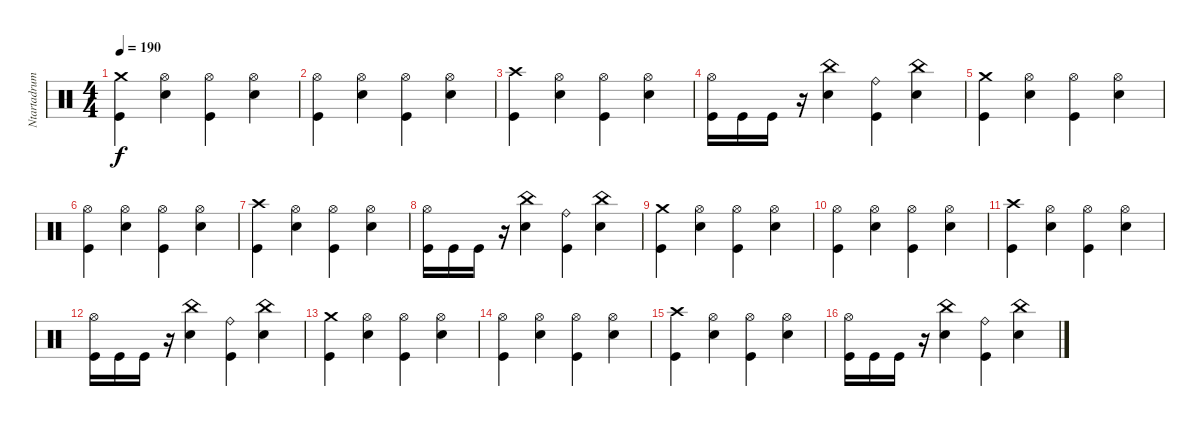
\track ("Ntartadrum" "Ntartadrum") {instrument percussion}
\staff {score}
\articulation defaults
\ts (4 4)
\tempo 190
\clef neutral
\ks c
("Kick (hit)" "Crash medium (hit)").4{dy f} ("Electric Snare (hit)" "Hi-Hat (open)").4 ("Kick (hit)" "Hi-Hat (open)").4 ("Electric Snare (hit)" "Hi-Hat (open)").4 |
("Kick (hit)" "Hi-Hat (open)").4 ("Electric Snare (hit)" "Hi-Hat (open)").4 ("Kick (hit)" "Hi-Hat (open)").4 ("Electric Snare (hit)" "Hi-Hat (open)").4 |
("Kick (hit)" "Crash high (hit)").4 ("Electric Snare (hit)" "Hi-Hat (open)").4 ("Kick (hit)" "Hi-Hat (open)").4 ("Electric Snare (hit)" "Hi-Hat (open)").4 |
("Kick (hit)" "Hi-Hat (open)").16 "Kick (hit)".16 "Kick (hit)".16 r.16 ("Electric Snare (hit)" "China (hit)").4 ("Kick (hit)" "Ride (bell)").4 ("Electric Snare (hit)" "China (hit)").4 |
("Kick (hit)" "Crash medium (hit)").4 ("Electric Snare (hit)" "Hi-Hat (open)").4 ("Kick (hit)" "Hi-Hat (open)").4 ("Electric Snare (hit)" "Hi-Hat (open)").4 |
("Kick (hit)" "Hi-Hat (open)").4 ("Electric Snare (hit)" "Hi-Hat (open)").4 ("Kick (hit)" "Hi-Hat (open)").4 ("Electric Snare (hit)" "Hi-Hat (open)").4 |
("Kick (hit)" "Crash high (hit)").4 ("Electric Snare (hit)" "Hi-Hat (open)").4 ("Kick (hit)" "Hi-Hat (open)").4 ("Electric Snare (hit)" "Hi-Hat (open)").4 |
("Kick (hit)" "Hi-Hat (open)").16 "Kick (hit)".16 "Kick (hit)".16 r.16 ("Electric Snare (hit)" "China (hit)").4 ("Kick (hit)" "Ride (bell)").4 ("Electric Snare (hit)" "China (hit)").4 |
("Kick (hit)" "Crash medium (hit)").4 ("Electric Snare (hit)" "Hi-Hat (open)").4 ("Kick (hit)" "Hi-Hat (open)").4 ("Electric Snare (hit)" "Hi-Hat (open)").4 |
("Kick (hit)" "Hi-Hat (open)").4 ("Electric Snare (hit)" "Hi-Hat (open)").4 ("Kick (hit)" "Hi-Hat (open)").4 ("Electric Snare (hit)" "Hi-Hat (open)").4 |
("Kick (hit)" "Crash high (hit)").4 ("Electric Snare (hit)" "Hi-Hat (open)").4 ("Kick (hit)" "Hi-Hat (open)").4 ("Electric Snare (hit)" "Hi-Hat (open)").4 |
("Kick (hit)" "Hi-Hat (open)").16 "Kick (hit)".16 "Kick (hit)".16 r.16 ("Electric Snare (hit)" "China (hit)").4 ("Kick (hit)" "Ride (bell)").4 ("Electric Snare (hit)" "China (hit)").4 |
("Kick (hit)" "Crash medium (hit)").4 ("Electric Snare (hit)" "Hi-Hat (open)").4 ("Kick (hit)" "Hi-Hat (open)").4 ("Electric Snare (hit)" "Hi-Hat (open)").4 |
("Kick (hit)" "Hi-Hat (open)").4 ("Electric Snare (hit)" "Hi-Hat (open)").4 ("Kick (hit)" "Hi-Hat (open)").4 ("Electric Snare (hit)" "Hi-Hat (open)").4 |
("Kick (hit)" "Crash high (hit)").4 ("Electric Snare (hit)" "Hi-Hat (open)").4 ("Kick (hit)" "Hi-Hat (open)").4 ("Electric Snare (hit)" "Hi-Hat (open)").4 |
("Kick (hit)" "Hi-Hat (open)").16 "Kick (hit)".16 "Kick (hit)".16 r.16 ("Electric Snare (hit)" "China (hit)").4 ("Kick (hit)" "Ride (bell)").4 ("Electric Snare (hit)" "China (hit)").4
